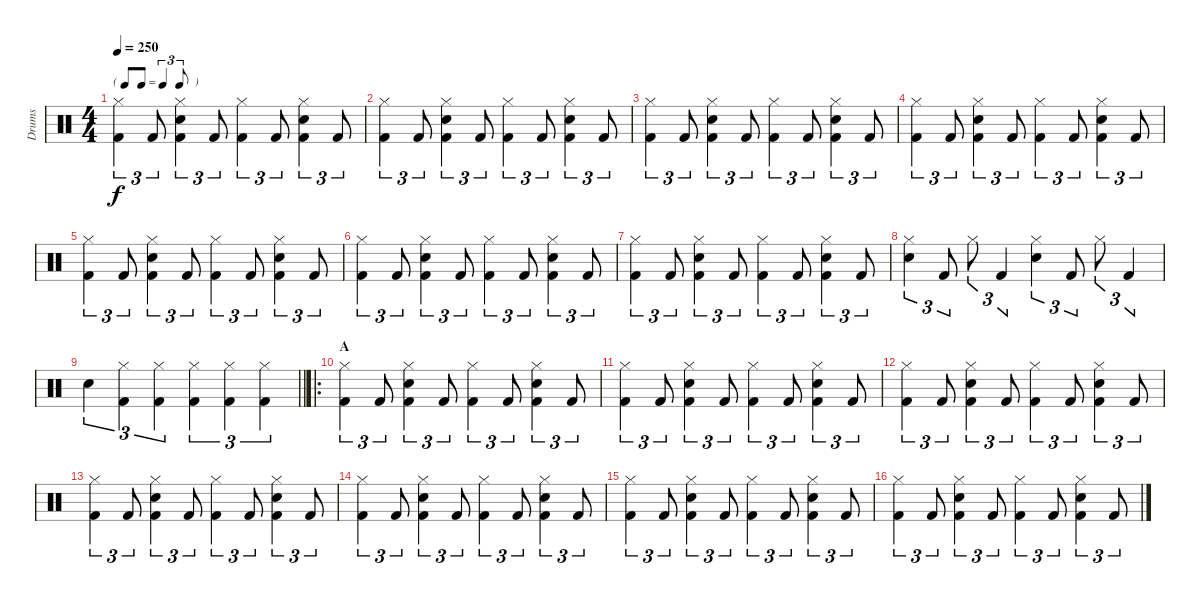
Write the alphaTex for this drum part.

\track ("Drums" "Drums") {instrument percussion}
\staff {score}
\articulation defaults
\ts (4 4)
\tf triplet8th
\tempo 250
\clef neutral
\ks aminor
("Hi-Hat (closed)" "Kick (hit) 2").4{tu (3 2) dy f} "Kick (hit) 2".8{tu (3 2)} ("Hi-Hat (closed)" "Electric Snare (hit)" "Kick (hit) 2").4{tu (3 2)} "Kick (hit) 2".8{tu (3 2)} ("Hi-Hat (closed)" "Kick (hit) 2").4{tu (3 2)} "Kick (hit) 2".8{tu (3 2)} ("Hi-Hat (closed)" "Electric Snare (hit)" "Kick (hit) 2").4{tu (3 2)} "Kick (hit) 2".8{tu (3 2)} |
("Hi-Hat (closed)" "Kick (hit) 2").4{tu (3 2)} "Kick (hit) 2".8{tu (3 2)} ("Hi-Hat (closed)" "Electric Snare (hit)" "Kick (hit) 2").4{tu (3 2)} "Kick (hit) 2".8{tu (3 2)} ("Hi-Hat (closed)" "Kick (hit) 2").4{tu (3 2)} "Kick (hit) 2".8{tu (3 2)} ("Hi-Hat (closed)" "Electric Snare (hit)" "Kick (hit) 2").4{tu (3 2)} "Kick (hit) 2".8{tu (3 2)} |
("Hi-Hat (closed)" "Kick (hit) 2").4{tu (3 2)} "Kick (hit) 2".8{tu (3 2)} ("Hi-Hat (closed)" "Electric Snare (hit)" "Kick (hit) 2").4{tu (3 2)} "Kick (hit) 2".8{tu (3 2)} ("Hi-Hat (closed)" "Kick (hit) 2").4{tu (3 2)} "Kick (hit) 2".8{tu (3 2)} ("Hi-Hat (closed)" "Electric Snare (hit)" "Kick (hit) 2").4{tu (3 2)} "Kick (hit) 2".8{tu (3 2)} |
("Hi-Hat (closed)" "Kick (hit) 2").4{tu (3 2)} "Kick (hit) 2".8{tu (3 2)} ("Hi-Hat (closed)" "Electric Snare (hit)" "Kick (hit) 2").4{tu (3 2)} "Kick (hit) 2".8{tu (3 2)} ("Hi-Hat (closed)" "Kick (hit) 2").4{tu (3 2)} "Kick (hit) 2".8{tu (3 2)} ("Hi-Hat (closed)" "Electric Snare (hit)" "Kick (hit) 2").4{tu (3 2)} "Kick (hit) 2".8{tu (3 2)} |
("Hi-Hat (closed)" "Kick (hit) 2").4{tu (3 2)} "Kick (hit) 2".8{tu (3 2)} ("Hi-Hat (closed)" "Electric Snare (hit)" "Kick (hit) 2").4{tu (3 2)} "Kick (hit) 2".8{tu (3 2)} ("Hi-Hat (closed)" "Kick (hit) 2").4{tu (3 2)} "Kick (hit) 2".8{tu (3 2)} ("Hi-Hat (closed)" "Electric Snare (hit)" "Kick (hit) 2").4{tu (3 2)} "Kick (hit) 2".8{tu (3 2)} |
("Hi-Hat (closed)" "Kick (hit) 2").4{tu (3 2)} "Kick (hit) 2".8{tu (3 2)} ("Hi-Hat (closed)" "Electric Snare (hit)" "Kick (hit) 2").4{tu (3 2)} "Kick (hit) 2".8{tu (3 2)} ("Hi-Hat (closed)" "Kick (hit) 2").4{tu (3 2)} "Kick (hit) 2".8{tu (3 2)} ("Hi-Hat (closed)" "Electric Snare (hit)" "Kick (hit) 2").4{tu (3 2)} "Kick (hit) 2".8{tu (3 2)} |
("Hi-Hat (closed)" "Kick (hit) 2").4{tu (3 2)} "Kick (hit) 2".8{tu (3 2)} ("Hi-Hat (closed)" "Electric Snare (hit)" "Kick (hit) 2").4{tu (3 2)} "Kick (hit) 2".8{tu (3 2)} ("Hi-Hat (closed)" "Kick (hit) 2").4{tu (3 2)} "Kick (hit) 2".8{tu (3 2)} ("Hi-Hat (closed)" "Electric Snare (hit)" "Kick (hit) 2").4{tu (3 2)} "Kick (hit) 2".8{tu (3 2)} |
("Hi-Hat (closed)" "Electric Snare (hit)").4{tu (3 2)} "Kick (hit) 2".8{tu (3 2)} "Hi-Hat (closed)".8{tu (3 2)} "Kick (hit) 2".4{tu (3 2)} ("Hi-Hat (closed)" "Electric Snare (hit)").4{tu (3 2)} "Kick (hit) 2".8{tu (3 2)} "Hi-Hat (closed)".8{tu (3 2)} "Kick (hit) 2".4{tu (3 2)} |
\barLineRight lightlight "Electric Snare (hit)".4{tu (3 2)}
("Hi-Hat (closed)" "Kick (hit) 2").4{tu (3 2)} ("Hi-Hat (closed)" "Kick (hit) 2").4{tu (3 2)} ("Hi-Hat (closed)" "Kick (hit) 2").4{tu (3 2)} ("Hi-Hat (closed)" "Kick (hit) 2").4{tu (3 2)} ("Hi-Hat (closed)" "Kick (hit) 2").4{tu (3 2)} |
\ro
\section ("" "A")
("Hi-Hat (closed)" "Kick (hit) 2").4{tu (3 2)} "Kick (hit) 2".8{tu (3 2)} ("Hi-Hat (closed)" "Electric Snare (hit)" "Kick (hit) 2").4{tu (3 2)} "Kick (hit) 2".8{tu (3 2)} ("Hi-Hat (closed)" "Kick (hit) 2").4{tu (3 2)} "Kick (hit) 2".8{tu (3 2)} ("Hi-Hat (closed)" "Electric Snare (hit)" "Kick (hit) 2").4{tu (3 2)} "Kick (hit) 2".8{tu (3 2)} |
("Hi-Hat (closed)" "Kick (hit) 2").4{tu (3 2)} "Kick (hit) 2".8{tu (3 2)} ("Hi-Hat (closed)" "Electric Snare (hit)" "Kick (hit) 2").4{tu (3 2)} "Kick (hit) 2".8{tu (3 2)} ("Hi-Hat (closed)" "Kick (hit) 2").4{tu (3 2)} "Kick (hit) 2".8{tu (3 2)} ("Hi-Hat (closed)" "Electric Snare (hit)" "Kick (hit) 2").4{tu (3 2)} "Kick (hit) 2".8{tu (3 2)} |
("Hi-Hat (closed)" "Kick (hit) 2").4{tu (3 2)} "Kick (hit) 2".8{tu (3 2)} ("Hi-Hat (closed)" "Electric Snare (hit)" "Kick (hit) 2").4{tu (3 2)} "Kick (hit) 2".8{tu (3 2)} ("Hi-Hat (closed)" "Kick (hit) 2").4{tu (3 2)} "Kick (hit) 2".8{tu (3 2)} ("Hi-Hat (closed)" "Electric Snare (hit)" "Kick (hit) 2").4{tu (3 2)} "Kick (hit) 2".8{tu (3 2)} |
("Hi-Hat (closed)" "Kick (hit) 2").4{tu (3 2)} "Kick (hit) 2".8{tu (3 2)} ("Hi-Hat (closed)" "Electric Snare (hit)" "Kick (hit) 2").4{tu (3 2)} "Kick (hit) 2".8{tu (3 2)} ("Hi-Hat (closed)" "Kick (hit) 2").4{tu (3 2)} "Kick (hit) 2".8{tu (3 2)} ("Hi-Hat (closed)" "Electric Snare (hit)" "Kick (hit) 2").4{tu (3 2)} "Kick (hit) 2".8{tu (3 2)} |
("Hi-Hat (closed)" "Kick (hit) 2").4{tu (3 2)} "Kick (hit) 2".8{tu (3 2)} ("Hi-Hat (closed)" "Electric Snare (hit)" "Kick (hit) 2").4{tu (3 2)} "Kick (hit) 2".8{tu (3 2)} ("Hi-Hat (closed)" "Kick (hit) 2").4{tu (3 2)} "Kick (hit) 2".8{tu (3 2)} ("Hi-Hat (closed)" "Electric Snare (hit)" "Kick (hit) 2").4{tu (3 2)} "Kick (hit) 2".8{tu (3 2)} |
("Hi-Hat (closed)" "Kick (hit) 2").4{tu (3 2)} "Kick (hit) 2".8{tu (3 2)} ("Hi-Hat (closed)" "Electric Snare (hit)" "Kick (hit) 2").4{tu (3 2)} "Kick (hit) 2".8{tu (3 2)} ("Hi-Hat (closed)" "Kick (hit) 2").4{tu (3 2)} "Kick (hit) 2".8{tu (3 2)} ("Hi-Hat (closed)" "Electric Snare (hit)" "Kick (hit) 2").4{tu (3 2)} "Kick (hit) 2".8{tu (3 2)} |
("Hi-Hat (closed)" "Kick (hit) 2").4{tu (3 2)} "Kick (hit) 2".8{tu (3 2)} ("Hi-Hat (closed)" "Electric Snare (hit)" "Kick (hit) 2").4{tu (3 2)} "Kick (hit) 2".8{tu (3 2)} ("Hi-Hat (closed)" "Kick (hit) 2").4{tu (3 2)} "Kick (hit) 2".8{tu (3 2)} ("Hi-Hat (closed)" "Electric Snare (hit)" "Kick (hit) 2").4{tu (3 2)} "Kick (hit) 2".8{tu (3 2)}
